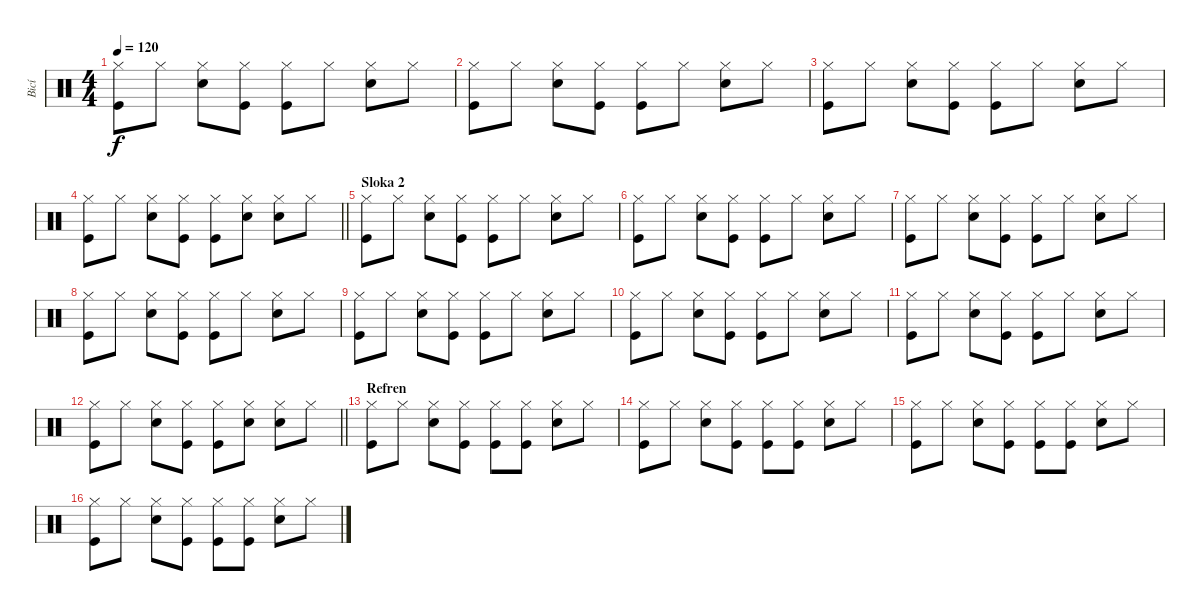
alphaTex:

\track ("Bicí" "Bicí") {instrument percussion}
\staff {score}
\articulation defaults
\ts (4 4)
\tempo 120
\clef neutral
\ks c
("Hi-Hat (closed)" "Kick (hit)").8{dy f} "Hi-Hat (closed)".8 ("Hi-Hat (closed)" "Snare (hit) 2").8 ("Hi-Hat (closed)" "Kick (hit)").8 ("Hi-Hat (closed)" "Kick (hit)").8 "Hi-Hat (closed)".8 ("Hi-Hat (closed)" "Snare (hit) 2").8 "Hi-Hat (closed)".8 |
("Hi-Hat (closed)" "Kick (hit)").8 "Hi-Hat (closed)".8 ("Hi-Hat (closed)" "Snare (hit) 2").8 ("Hi-Hat (closed)" "Kick (hit)").8 ("Hi-Hat (closed)" "Kick (hit)").8 "Hi-Hat (closed)".8 ("Hi-Hat (closed)" "Snare (hit) 2").8 "Hi-Hat (closed)".8 |
("Hi-Hat (closed)" "Kick (hit)").8 "Hi-Hat (closed)".8 ("Hi-Hat (closed)" "Snare (hit) 2").8 ("Hi-Hat (closed)" "Kick (hit)").8 ("Hi-Hat (closed)" "Kick (hit)").8 "Hi-Hat (closed)".8 ("Hi-Hat (closed)" "Snare (hit) 2").8 "Hi-Hat (closed)".8 |
\barLineRight lightlight
("Hi-Hat (closed)" "Kick (hit)").8 "Hi-Hat (closed)".8 ("Hi-Hat (closed)" "Snare (hit) 2").8 ("Hi-Hat (closed)" "Kick (hit)").8 ("Hi-Hat (closed)" "Kick (hit)").8 ("Hi-Hat (closed)" "Snare (hit) 2").8 ("Hi-Hat (closed)" "Snare (hit) 2").8 "Hi-Hat (closed)".8 |
\section ("" "Sloka 2")
("Hi-Hat (closed)" "Kick (hit)").8 "Hi-Hat (closed)".8 ("Hi-Hat (closed)" "Snare (hit) 2").8 ("Hi-Hat (closed)" "Kick (hit)").8 ("Hi-Hat (closed)" "Kick (hit)").8 "Hi-Hat (closed)".8 ("Hi-Hat (closed)" "Snare (hit) 2").8 "Hi-Hat (closed)".8 |
("Hi-Hat (closed)" "Kick (hit)").8 "Hi-Hat (closed)".8 ("Hi-Hat (closed)" "Snare (hit) 2").8 ("Hi-Hat (closed)" "Kick (hit)").8 ("Hi-Hat (closed)" "Kick (hit)").8 "Hi-Hat (closed)".8 ("Hi-Hat (closed)" "Snare (hit) 2").8 "Hi-Hat (closed)".8 |
("Hi-Hat (closed)" "Kick (hit)").8 "Hi-Hat (closed)".8 ("Hi-Hat (closed)" "Snare (hit) 2").8 ("Hi-Hat (closed)" "Kick (hit)").8 ("Hi-Hat (closed)" "Kick (hit)").8 "Hi-Hat (closed)".8 ("Hi-Hat (closed)" "Snare (hit) 2").8 "Hi-Hat (closed)".8 |
("Hi-Hat (closed)" "Kick (hit)").8 "Hi-Hat (closed)".8 ("Hi-Hat (closed)" "Snare (hit) 2").8 ("Hi-Hat (closed)" "Kick (hit)").8 ("Hi-Hat (closed)" "Kick (hit)").8 "Hi-Hat (closed)".8 ("Hi-Hat (closed)" "Snare (hit) 2").8 "Hi-Hat (closed)".8 |
("Hi-Hat (closed)" "Kick (hit)").8 "Hi-Hat (closed)".8 ("Hi-Hat (closed)" "Snare (hit) 2").8 ("Hi-Hat (closed)" "Kick (hit)").8 ("Hi-Hat (closed)" "Kick (hit)").8 "Hi-Hat (closed)".8 ("Hi-Hat (closed)" "Snare (hit) 2").8 "Hi-Hat (closed)".8 |
("Hi-Hat (closed)" "Kick (hit)").8 "Hi-Hat (closed)".8 ("Hi-Hat (closed)" "Snare (hit) 2").8 ("Hi-Hat (closed)" "Kick (hit)").8 ("Hi-Hat (closed)" "Kick (hit)").8 "Hi-Hat (closed)".8 ("Hi-Hat (closed)" "Snare (hit) 2").8 "Hi-Hat (closed)".8 |
("Hi-Hat (closed)" "Kick (hit)").8 "Hi-Hat (closed)".8 ("Hi-Hat (closed)" "Snare (hit) 2").8 ("Hi-Hat (closed)" "Kick (hit)").8 ("Hi-Hat (closed)" "Kick (hit)").8 "Hi-Hat (closed)".8 ("Hi-Hat (closed)" "Snare (hit) 2").8 "Hi-Hat (closed)".8 |
\barLineRight lightlight
("Hi-Hat (closed)" "Kick (hit)").8 "Hi-Hat (closed)".8 ("Hi-Hat (closed)" "Snare (hit) 2").8 ("Hi-Hat (closed)" "Kick (hit)").8 ("Hi-Hat (closed)" "Kick (hit)").8 ("Hi-Hat (closed)" "Snare (hit) 2").8 ("Hi-Hat (closed)" "Snare (hit) 2").8 "Hi-Hat (closed)".8 |
\section ("" "Refren")
("Hi-Hat (closed)" "Kick (hit)").8 "Hi-Hat (closed)".8 ("Hi-Hat (closed)" "Snare (hit) 2").8 ("Hi-Hat (closed)" "Kick (hit)").8 ("Hi-Hat (closed)" "Kick (hit)").8 ("Hi-Hat (closed)" "Kick (hit)").8 ("Hi-Hat (closed)" "Snare (hit) 2").8 "Hi-Hat (closed)".8 |
("Hi-Hat (closed)" "Kick (hit)").8 "Hi-Hat (closed)".8 ("Hi-Hat (closed)" "Snare (hit) 2").8 ("Hi-Hat (closed)" "Kick (hit)").8 ("Hi-Hat (closed)" "Kick (hit)").8 ("Hi-Hat (closed)" "Kick (hit)").8 ("Hi-Hat (closed)" "Snare (hit) 2").8 "Hi-Hat (closed)".8 |
("Hi-Hat (closed)" "Kick (hit)").8 "Hi-Hat (closed)".8 ("Hi-Hat (closed)" "Snare (hit) 2").8 ("Hi-Hat (closed)" "Kick (hit)").8 ("Hi-Hat (closed)" "Kick (hit)").8 ("Hi-Hat (closed)" "Kick (hit)").8 ("Hi-Hat (closed)" "Snare (hit) 2").8 "Hi-Hat (closed)".8 |
("Hi-Hat (closed)" "Kick (hit)").8 "Hi-Hat (closed)".8 ("Hi-Hat (closed)" "Snare (hit) 2").8 ("Hi-Hat (closed)" "Kick (hit)").8 ("Hi-Hat (closed)" "Kick (hit)").8 ("Hi-Hat (closed)" "Kick (hit)").8 ("Hi-Hat (closed)" "Snare (hit) 2").8 "Hi-Hat (closed)".8
